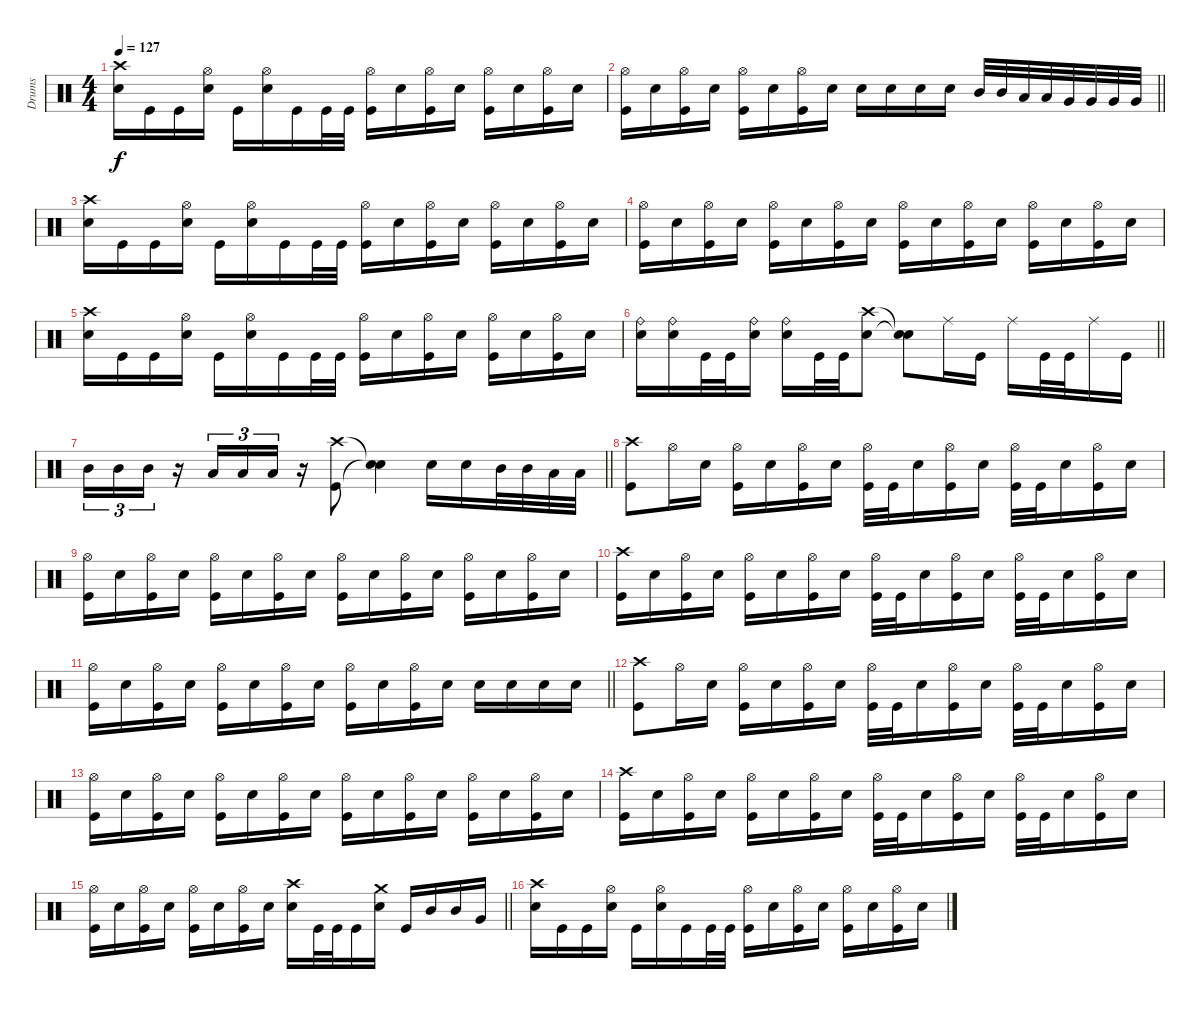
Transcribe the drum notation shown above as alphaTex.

\track ("Drums" "Drums") {instrument percussion}
\staff
\articulation defaults
\ts (4 4)
\tempo 127
\clef neutral
\ks c
("Crash high (hit)" "Electric Snare (hit)").16{dy f} "Kick (hit)".16 "Kick (hit)".16 ("Hi-Hat (open)" "Electric Snare (hit)").16 "Kick (hit)".16 ("Hi-Hat (open)" "Electric Snare (hit)").16 "Kick (hit)".16 "Kick (hit)".32 "Kick (hit)".32 ("Hi-Hat (open)" "Kick (hit)").16 "Electric Snare (hit)".16 ("Hi-Hat (open)" "Kick (hit)").16 "Electric Snare (hit)".16 ("Hi-Hat (open)" "Kick (hit)").16 "Electric Snare (hit)".16 ("Hi-Hat (open)" "Kick (hit)").16 "Electric Snare (hit)".16 |
\barLineRight lightlight
("Hi-Hat (open)" "Kick (hit)").16 "Electric Snare (hit)".16 ("Hi-Hat (open)" "Kick (hit)").16 "Electric Snare (hit)".16 ("Hi-Hat (open)" "Kick (hit)").16 "Electric Snare (hit)".16 ("Hi-Hat (open)" "Kick (hit)").16 "Electric Snare (hit)".16 "Electric Snare (hit)".16 "Electric Snare (hit)".16 "Electric Snare (hit)".16 "Electric Snare (hit)".16 "Mid Tom (hit)".32 "Mid Tom (hit)".32 "Low Tom (hit)".32 "Low Tom (hit)".32 "Very Low Tom (hit)".32 "Very Low Tom (hit)".32 "Very Low Tom (hit)".32 "Very Low Tom (hit)".32 |
("Crash high (hit)" "Electric Snare (hit)").16 "Kick (hit)".16 "Kick (hit)".16 ("Hi-Hat (open)" "Electric Snare (hit)").16 "Kick (hit)".16 ("Hi-Hat (open)" "Electric Snare (hit)").16 "Kick (hit)".16 "Kick (hit)".32 "Kick (hit)".32 ("Hi-Hat (open)" "Kick (hit)").16 "Electric Snare (hit)".16 ("Hi-Hat (open)" "Kick (hit)").16 "Electric Snare (hit)".16 ("Hi-Hat (open)" "Kick (hit)").16 "Electric Snare (hit)".16 ("Hi-Hat (open)" "Kick (hit)").16 "Electric Snare (hit)".16 |
("Hi-Hat (open)" "Kick (hit)").16 "Electric Snare (hit)".16 ("Hi-Hat (open)" "Kick (hit)").16 "Electric Snare (hit)".16 ("Hi-Hat (open)" "Kick (hit)").16 "Electric Snare (hit)".16 ("Hi-Hat (open)" "Kick (hit)").16 "Electric Snare (hit)".16 ("Hi-Hat (open)" "Kick (hit)").16 "Electric Snare (hit)".16 ("Hi-Hat (open)" "Kick (hit)").16 "Electric Snare (hit)".16 ("Hi-Hat (open)" "Kick (hit)").16 "Electric Snare (hit)".16 ("Hi-Hat (open)" "Kick (hit)").16 "Electric Snare (hit)".16 |
("Crash high (hit)" "Electric Snare (hit)").16 "Kick (hit)".16 "Kick (hit)".16 ("Hi-Hat (open)" "Electric Snare (hit)").16 "Kick (hit)".16 ("Hi-Hat (open)" "Electric Snare (hit)").16 "Kick (hit)".16 "Kick (hit)".32 "Kick (hit)".32 ("Hi-Hat (open)" "Kick (hit)").16 "Electric Snare (hit)".16 ("Hi-Hat (open)" "Kick (hit)").16 "Electric Snare (hit)".16 ("Hi-Hat (open)" "Kick (hit)").16 "Electric Snare (hit)".16 ("Hi-Hat (open)" "Kick (hit)").16 "Electric Snare (hit)".16 |
\barLineRight lightlight
("Ride (bell)" "Electric Snare (hit)").16 ("Ride (bell)" "Electric Snare (hit)").16 "Kick (hit)".32 "Kick (hit)".32 ("Ride (bell)" "Electric Snare (hit)").16 ("Ride (bell)" "Electric Snare (hit)").16 "Kick (hit)".32 "Kick (hit)".32 ("Crash high (hit)" "Electric Snare (hit)").8 ("Snare (hit)"{t} "Snare (hit)"{t}).8 "Ride (middle)".16 "Kick (hit)".16 "Ride (middle)".16 "Kick (hit)".32 "Kick (hit)".32 "Ride (middle)".16 "Kick (hit)".16 |
\barLineRight lightlight "Mid Tom (hit)".16{tu (3 2)} "Mid Tom (hit)".16{tu (3 2)} "Mid Tom (hit)".16{tu (3 2)}
r.16 "Low Tom (hit)".16{tu (3 2)} "Low Tom (hit)".16{tu (3 2)} "Low Tom (hit)".16{tu (3 2)} r.16 ("Crash high (hit)" "Kick (hit)").8 ("Snare (hit)"{t} "Snare (hit)"{t}).4 "Electric Snare (hit)".16 "Electric Snare (hit)".16 "Mid Tom (hit)".32 "Mid Tom (hit)".32 "Low Tom (hit)".32 "Low Tom (hit)".32 |
\section ("" "")
("Crash high (hit)" "Kick (hit)").8 "Hi-Hat (open)".16 "Electric Snare (hit)".16 ("Hi-Hat (open)" "Kick (hit)").16 "Electric Snare (hit)".16 ("Hi-Hat (open)" "Kick (hit)").16 "Electric Snare (hit)".16 ("Hi-Hat (open)" "Kick (hit)").32 "Kick (hit)".32 "Electric Snare (hit)".16 ("Hi-Hat (open)" "Kick (hit)").16 "Electric Snare (hit)".16 ("Hi-Hat (open)" "Kick (hit)").32 "Kick (hit)".32 "Electric Snare (hit)".16 ("Hi-Hat (open)" "Kick (hit)").16 "Electric Snare (hit)".16 |
("Hi-Hat (open)" "Kick (hit)").16 "Electric Snare (hit)".16 ("Hi-Hat (open)" "Kick (hit)").16 "Electric Snare (hit)".16 ("Hi-Hat (open)" "Kick (hit)").16 "Electric Snare (hit)".16 ("Hi-Hat (open)" "Kick (hit)").16 "Electric Snare (hit)".16 ("Hi-Hat (open)" "Kick (hit)").16 "Electric Snare (hit)".16 ("Hi-Hat (open)" "Kick (hit)").16 "Electric Snare (hit)".16 ("Hi-Hat (open)" "Kick (hit)").16 "Electric Snare (hit)".16 ("Hi-Hat (open)" "Kick (hit)").16 "Electric Snare (hit)".16 |
("Crash high (hit)" "Kick (hit)").16 "Electric Snare (hit)".16 ("Hi-Hat (open)" "Kick (hit)").16 "Electric Snare (hit)".16 ("Hi-Hat (open)" "Kick (hit)").16 "Electric Snare (hit)".16 ("Hi-Hat (open)" "Kick (hit)").16 "Electric Snare (hit)".16 ("Hi-Hat (open)" "Kick (hit)").32 "Kick (hit)".32 "Electric Snare (hit)".16 ("Hi-Hat (open)" "Kick (hit)").16 "Electric Snare (hit)".16 ("Hi-Hat (open)" "Kick (hit)").32 "Kick (hit)".32 "Electric Snare (hit)".16 ("Hi-Hat (open)" "Kick (hit)").16 "Electric Snare (hit)".16 |
\barLineRight lightlight
("Hi-Hat (open)" "Kick (hit)").16 "Electric Snare (hit)".16 ("Hi-Hat (open)" "Kick (hit)").16 "Electric Snare (hit)".16 ("Hi-Hat (open)" "Kick (hit)").16 "Electric Snare (hit)".16 ("Hi-Hat (open)" "Kick (hit)").16 "Electric Snare (hit)".16 ("Hi-Hat (open)" "Kick (hit)").16 "Electric Snare (hit)".16 ("Hi-Hat (open)" "Kick (hit)").16 "Electric Snare (hit)".16 "Electric Snare (hit)".16 "Electric Snare (hit)".16 "Electric Snare (hit)".16 "Electric Snare (hit)".16 |
("Crash high (hit)" "Kick (hit)").8 "Hi-Hat (open)".16 "Electric Snare (hit)".16 ("Hi-Hat (open)" "Kick (hit)").16 "Electric Snare (hit)".16 ("Hi-Hat (open)" "Kick (hit)").16 "Electric Snare (hit)".16 ("Hi-Hat (open)" "Kick (hit)").32 "Kick (hit)".32 "Electric Snare (hit)".16 ("Hi-Hat (open)" "Kick (hit)").16 "Electric Snare (hit)".16 ("Hi-Hat (open)" "Kick (hit)").32 "Kick (hit)".32 "Electric Snare (hit)".16 ("Hi-Hat (open)" "Kick (hit)").16 "Electric Snare (hit)".16 |
("Hi-Hat (open)" "Kick (hit)").16 "Electric Snare (hit)".16 ("Hi-Hat (open)" "Kick (hit)").16 "Electric Snare (hit)".16 ("Hi-Hat (open)" "Kick (hit)").16 "Electric Snare (hit)".16 ("Hi-Hat (open)" "Kick (hit)").16 "Electric Snare (hit)".16 ("Hi-Hat (open)" "Kick (hit)").16 "Electric Snare (hit)".16 ("Hi-Hat (open)" "Kick (hit)").16 "Electric Snare (hit)".16 ("Hi-Hat (open)" "Kick (hit)").16 "Electric Snare (hit)".16 ("Hi-Hat (open)" "Kick (hit)").16 "Electric Snare (hit)".16 |
("Crash high (hit)" "Kick (hit)").16 "Electric Snare (hit)".16 ("Hi-Hat (open)" "Kick (hit)").16 "Electric Snare (hit)".16 ("Hi-Hat (open)" "Kick (hit)").16 "Electric Snare (hit)".16 ("Hi-Hat (open)" "Kick (hit)").16 "Electric Snare (hit)".16 ("Hi-Hat (open)" "Kick (hit)").32 "Kick (hit)".32 "Electric Snare (hit)".16 ("Hi-Hat (open)" "Kick (hit)").16 "Electric Snare (hit)".16 ("Hi-Hat (open)" "Kick (hit)").32 "Kick (hit)".32 "Electric Snare (hit)".16 ("Hi-Hat (open)" "Kick (hit)").16 "Electric Snare (hit)".16 |
\barLineRight lightlight
("Hi-Hat (open)" "Kick (hit)").16 "Electric Snare (hit)".16 ("Hi-Hat (open)" "Kick (hit)").16 "Electric Snare (hit)".16 ("Hi-Hat (open)" "Kick (hit)").16 "Electric Snare (hit)".16 ("Hi-Hat (open)" "Kick (hit)").16 "Electric Snare (hit)".16 ("Crash high (hit)" "Electric Snare (hit)").16 "Kick (hit)".32 "Kick (hit)".32 "Kick (hit)".16 ("Crash medium (hit)" "Electric Snare (hit)").16 "Kick (hit)".16 "Mid Tom (hit)".16 "Mid Tom (hit)".16 "Very Low Tom (hit)".16 |
("Crash high (hit)" "Electric Snare (hit)").16 "Kick (hit)".16 "Kick (hit)".16 ("Hi-Hat (open)" "Electric Snare (hit)").16 "Kick (hit)".16 ("Hi-Hat (open)" "Electric Snare (hit)").16 "Kick (hit)".16 "Kick (hit)".32 "Kick (hit)".32 ("Hi-Hat (open)" "Kick (hit)").16 "Electric Snare (hit)".16 ("Hi-Hat (open)" "Kick (hit)").16 "Electric Snare (hit)".16 ("Hi-Hat (open)" "Kick (hit)").16 "Electric Snare (hit)".16 ("Hi-Hat (open)" "Kick (hit)").16 "Electric Snare (hit)".16
